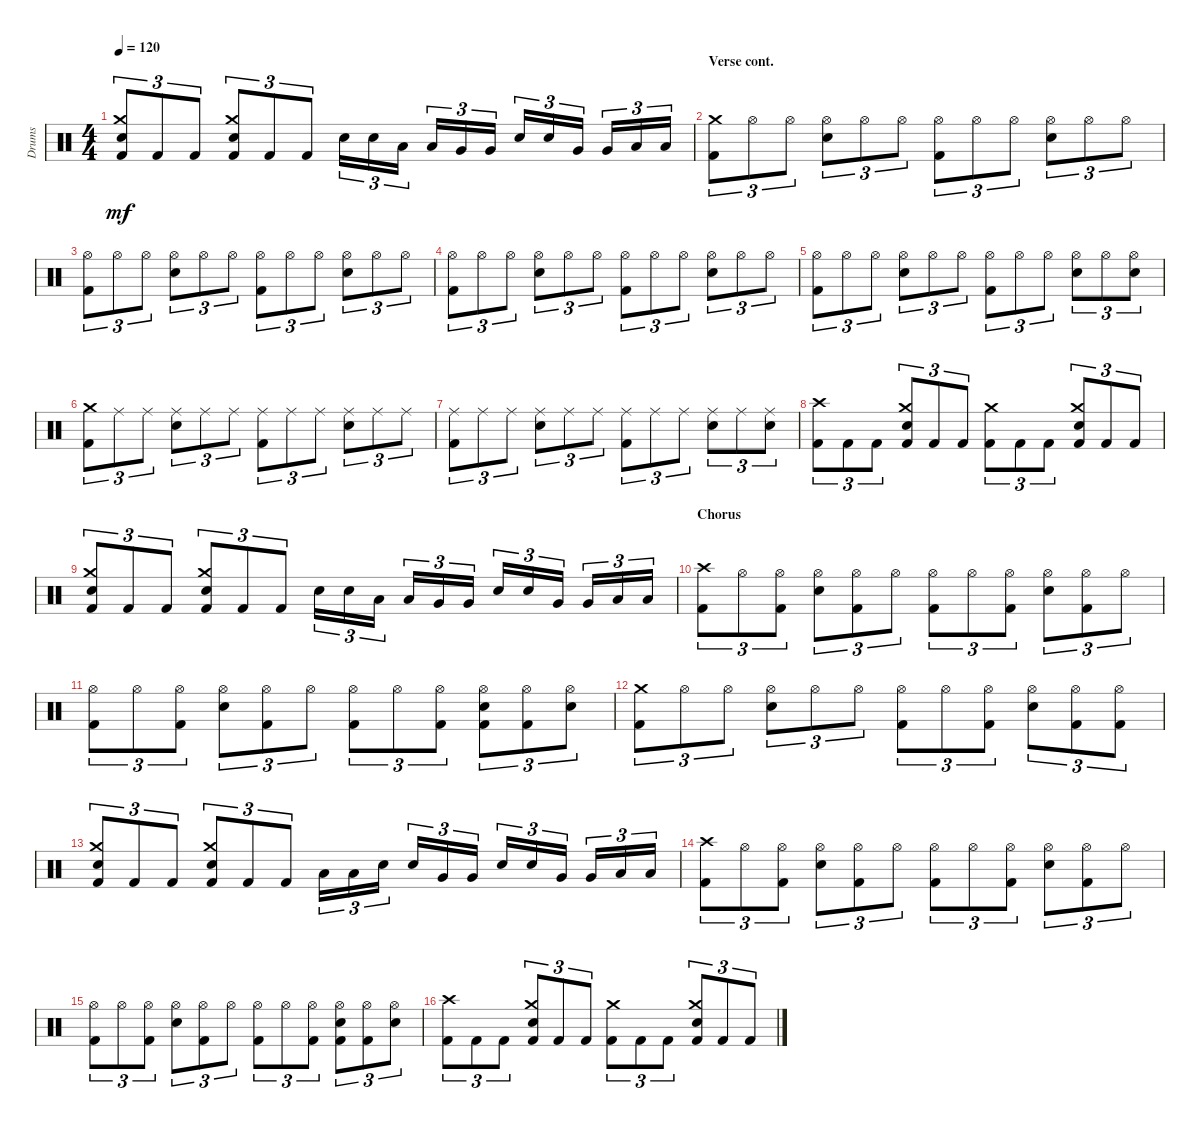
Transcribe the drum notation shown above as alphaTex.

\track ("Drums" "Drums") {instrument percussion}
\staff {score}
\articulation defaults
\ts (4 4)
\tempo 120
\clef neutral
\ks aminor
("Snare (hit) 2" "Crash medium (hit)" "Kick (hit) 2").8{tu (3 2) dy mf} "Kick (hit) 2".8{tu (3 2)} "Kick (hit) 2".8{tu (3 2)} ("Crash medium (hit)" "Kick (hit) 2" "Snare (hit) 2").8{tu (3 2)} "Kick (hit) 2".8{tu (3 2)} "Kick (hit) 2".8{tu (3 2)} "Snare (hit) 2".16{tu (3 2)} "Snare (hit) 2".16{tu (3 2)} "Low Tom (hit)".16{tu (3 2)} "Low Tom (hit)".16{tu (3 2)} "Very Low Tom (hit)".16{tu (3 2)} "Very Low Tom (hit)".16{tu (3 2)} "Snare (hit) 2".16{tu (3 2)} "Snare (hit) 2".16{tu (3 2)} "Very Low Tom (hit)".16{tu (3 2)} "Very Low Tom (hit)".16{tu (3 2)} "Low Floor Tom (hit)".16{tu (3 2)} "Low Floor Tom (hit)".16{tu (3 2)} |
\section ("" "Verse cont.")
("Crash medium (hit)" "Kick (hit) 2").8{tu (3 2)} "Hi-Hat (open)".8{tu (3 2)} "Hi-Hat (open)".8{tu (3 2)} ("Hi-Hat (open)" "Snare (hit) 2").8{tu (3 2)} "Hi-Hat (open)".8{tu (3 2)} "Hi-Hat (open)".8{tu (3 2)} ("Hi-Hat (open)" "Kick (hit) 2").8{tu (3 2)} "Hi-Hat (open)".8{tu (3 2)} "Hi-Hat (open)".8{tu (3 2)} ("Hi-Hat (open)" "Snare (hit) 2").8{tu (3 2)} "Hi-Hat (open)".8{tu (3 2)} "Hi-Hat (open)".8{tu (3 2)} |
("Kick (hit) 2" "Hi-Hat (open)").8{tu (3 2)} "Hi-Hat (open)".8{tu (3 2)} "Hi-Hat (open)".8{tu (3 2)} ("Hi-Hat (open)" "Snare (hit) 2").8{tu (3 2)} "Hi-Hat (open)".8{tu (3 2)} "Hi-Hat (open)".8{tu (3 2)} ("Hi-Hat (open)" "Kick (hit) 2").8{tu (3 2)} "Hi-Hat (open)".8{tu (3 2)} "Hi-Hat (open)".8{tu (3 2)} ("Snare (hit) 2" "Hi-Hat (open)").8{tu (3 2)} "Hi-Hat (open)".8{tu (3 2)} "Hi-Hat (open)".8{tu (3 2)} |
("Hi-Hat (open)" "Kick (hit) 2").8{tu (3 2)} "Hi-Hat (open)".8{tu (3 2)} "Hi-Hat (open)".8{tu (3 2)} ("Snare (hit) 2" "Hi-Hat (open)").8{tu (3 2)} "Hi-Hat (open)".8{tu (3 2)} "Hi-Hat (open)".8{tu (3 2)} ("Kick (hit) 2" "Hi-Hat (open)").8{tu (3 2)} "Hi-Hat (open)".8{tu (3 2)} "Hi-Hat (open)".8{tu (3 2)} ("Hi-Hat (open)" "Snare (hit) 2").8{tu (3 2)} "Hi-Hat (open)".8{tu (3 2)} "Hi-Hat (open)".8{tu (3 2)} |
("Kick (hit) 2" "Hi-Hat (open)").8{tu (3 2)} "Hi-Hat (open)".8{tu (3 2)} "Hi-Hat (open)".8{tu (3 2)} ("Hi-Hat (open)" "Snare (hit) 2").8{tu (3 2)} "Hi-Hat (open)".8{tu (3 2)} "Hi-Hat (open)".8{tu (3 2)} ("Hi-Hat (open)" "Kick (hit) 2").8{tu (3 2)} "Hi-Hat (open)".8{tu (3 2)} "Hi-Hat (open)".8{tu (3 2)} ("Snare (hit) 2" "Hi-Hat (open)").8{tu (3 2)} "Hi-Hat (open)".8{tu (3 2)} ("Snare (hit) 2" "Hi-Hat (open)").8{tu (3 2)} |
("Crash medium (hit)" "Kick (hit) 2").8{tu (3 2)} "Ride (middle)".8{tu (3 2)} "Ride (middle)".8{tu (3 2)} ("Ride (middle)" "Snare (hit) 2").8{tu (3 2)} "Ride (middle)".8{tu (3 2)} "Ride (middle)".8{tu (3 2)} ("Kick (hit) 2" "Ride (middle)").8{tu (3 2)} "Ride (middle)".8{tu (3 2)} "Ride (middle)".8{tu (3 2)} ("Ride (middle)" "Snare (hit) 2").8{tu (3 2)} "Ride (middle)".8{tu (3 2)} "Ride (middle)".8{tu (3 2)} |
("Ride (middle)" "Kick (hit) 2").8{tu (3 2)} "Ride (middle)".8{tu (3 2)} "Ride (middle)".8{tu (3 2)} ("Ride (middle)" "Snare (hit) 2").8{tu (3 2)} "Ride (middle)".8{tu (3 2)} "Ride (middle)".8{tu (3 2)} ("Kick (hit) 2" "Ride (middle)").8{tu (3 2)} "Ride (middle)".8{tu (3 2)} "Ride (middle)".8{tu (3 2)} ("Snare (hit) 2" "Ride (middle)").8{tu (3 2)} "Ride (middle)".8{tu (3 2)} ("Snare (hit) 2" "Ride (middle)").8{tu (3 2)} |
("Kick (hit) 2" "Crash high (hit)").8{tu (3 2)} "Kick (hit) 2".8{tu (3 2)} "Kick (hit) 2".8{tu (3 2)} ("Crash medium (hit)" "Kick (hit) 2" "Snare (hit) 2").8{tu (3 2)} "Kick (hit) 2".8{tu (3 2)} "Kick (hit) 2".8{tu (3 2)} ("Crash medium (hit)" "Kick (hit) 2").8{tu (3 2)} "Kick (hit) 2".8{tu (3 2)} "Kick (hit) 2".8{tu (3 2)} ("Kick (hit) 2" "Snare (hit) 2" "Crash medium (hit)").8{tu (3 2)} "Kick (hit) 2".8{tu (3 2)} "Kick (hit) 2".8{tu (3 2)} |
("Kick (hit) 2" "Snare (hit) 2" "Crash medium (hit)").8{tu (3 2)} "Kick (hit) 2".8{tu (3 2)} "Kick (hit) 2".8{tu (3 2)} ("Snare (hit) 2" "Kick (hit) 2" "Crash medium (hit)").8{tu (3 2)} "Kick (hit) 2".8{tu (3 2)} "Kick (hit) 2".8{tu (3 2)} "Snare (hit) 2".16{tu (3 2)} "Snare (hit) 2".16{tu (3 2)} "Low Tom (hit)".16{tu (3 2)} "Low Tom (hit)".16{tu (3 2)} "Very Low Tom (hit)".16{tu (3 2)} "Very Low Tom (hit)".16{tu (3 2)} "Snare (hit) 2".16{tu (3 2)} "Snare (hit) 2".16{tu (3 2)} "Very Low Tom (hit)".16{tu (3 2)} "Very Low Tom (hit)".16{tu (3 2)} "Low Floor Tom (hit)".16{tu (3 2)} "Low Floor Tom (hit)".16{tu (3 2)} |
\section ("" "Chorus")
("Kick (hit) 2" "Crash high (hit)").8{tu (3 2)} "Hi-Hat (open)".8{tu (3 2)} ("Kick (hit) 2" "Hi-Hat (open)").8{tu (3 2)} ("Snare (hit) 2" "Hi-Hat (open)").8{tu (3 2)} ("Hi-Hat (open)" "Kick (hit) 2").8{tu (3 2)} "Hi-Hat (open)".8{tu (3 2)} ("Kick (hit) 2" "Hi-Hat (open)").8{tu (3 2)} "Hi-Hat (open)".8{tu (3 2)} ("Kick (hit) 2" "Hi-Hat (open)").8{tu (3 2)} ("Hi-Hat (open)" "Snare (hit) 2").8{tu (3 2)} ("Hi-Hat (open)" "Kick (hit) 2").8{tu (3 2)} "Hi-Hat (open)".8{tu (3 2)} |
("Kick (hit) 2" "Hi-Hat (open)").8{tu (3 2)} "Hi-Hat (open)".8{tu (3 2)} ("Hi-Hat (open)" "Kick (hit) 2").8{tu (3 2)} ("Snare (hit) 2" "Hi-Hat (open)").8{tu (3 2)} ("Hi-Hat (open)" "Kick (hit) 2").8{tu (3 2)} "Hi-Hat (open)".8{tu (3 2)} ("Hi-Hat (open)" "Kick (hit) 2").8{tu (3 2)} "Hi-Hat (open)".8{tu (3 2)} ("Kick (hit) 2" "Hi-Hat (open)").8{tu (3 2)} ("Hi-Hat (open)" "Snare (hit) 2" "Kick (hit) 2").8{tu (3 2)} ("Hi-Hat (open)" "Kick (hit) 2").8{tu (3 2)} ("Hi-Hat (open)" "Snare (hit) 2").8{tu (3 2)} |
("Crash medium (hit)" "Kick (hit) 2").8{tu (3 2)} "Hi-Hat (open)".8{tu (3 2)} "Hi-Hat (open)".8{tu (3 2)} ("Snare (hit) 2" "Hi-Hat (open)").8{tu (3 2)} "Hi-Hat (open)".8{tu (3 2)} "Hi-Hat (open)".8{tu (3 2)} ("Kick (hit) 2" "Hi-Hat (open)").8{tu (3 2)} "Hi-Hat (open)".8{tu (3 2)} ("Kick (hit) 2" "Hi-Hat (open)").8{tu (3 2)} ("Hi-Hat (open)" "Snare (hit) 2").8{tu (3 2)} ("Hi-Hat (open)" "Kick (hit) 2").8{tu (3 2)} ("Kick (hit) 2" "Hi-Hat (open)").8{tu (3 2)} |
("Snare (hit) 2" "Crash medium (hit)" "Kick (hit) 2").8{tu (3 2)} "Kick (hit) 2".8{tu (3 2)} "Kick (hit) 2".8{tu (3 2)} ("Snare (hit) 2" "Kick (hit) 2" "Crash medium (hit)").8{tu (3 2)} "Kick (hit) 2".8{tu (3 2)} "Kick (hit) 2".8{tu (3 2)} "Low Tom (hit)".16{tu (3 2)} "Low Tom (hit)".16{tu (3 2)} "Snare (hit) 2".16{tu (3 2)} "Snare (hit) 2".16{tu (3 2)} "Very Low Tom (hit)".16{tu (3 2)} "Very Low Tom (hit)".16{tu (3 2)} "Snare (hit) 2".16{tu (3 2)} "Snare (hit) 2".16{tu (3 2)} "Very Low Tom (hit)".16{tu (3 2)} "Very Low Tom (hit)".16{tu (3 2)} "Low Floor Tom (hit)".16{tu (3 2)} "Low Floor Tom (hit)".16{tu (3 2)} |
("Kick (hit) 2" "Crash high (hit)").8{tu (3 2)} "Hi-Hat (open)".8{tu (3 2)} ("Kick (hit) 2" "Hi-Hat (open)").8{tu (3 2)} ("Snare (hit) 2" "Hi-Hat (open)").8{tu (3 2)} ("Hi-Hat (open)" "Kick (hit) 2").8{tu (3 2)} "Hi-Hat (open)".8{tu (3 2)} ("Hi-Hat (open)" "Kick (hit) 2").8{tu (3 2)} "Hi-Hat (open)".8{tu (3 2)} ("Kick (hit) 2" "Hi-Hat (open)").8{tu (3 2)} ("Snare (hit) 2" "Hi-Hat (open)").8{tu (3 2)} ("Kick (hit) 2" "Hi-Hat (open)").8{tu (3 2)} "Hi-Hat (open)".8{tu (3 2)} |
("Kick (hit) 2" "Hi-Hat (open)").8{tu (3 2)} "Hi-Hat (open)".8{tu (3 2)} ("Hi-Hat (open)" "Kick (hit) 2").8{tu (3 2)} ("Hi-Hat (open)" "Snare (hit) 2").8{tu (3 2)} ("Kick (hit) 2" "Hi-Hat (open)").8{tu (3 2)} "Hi-Hat (open)".8{tu (3 2)} ("Kick (hit) 2" "Hi-Hat (open)").8{tu (3 2)} "Hi-Hat (open)".8{tu (3 2)} ("Kick (hit) 2" "Hi-Hat (open)").8{tu (3 2)} ("Hi-Hat (open)" "Kick (hit) 2" "Snare (hit) 2").8{tu (3 2)} ("Hi-Hat (open)" "Kick (hit) 2").8{tu (3 2)} ("Snare (hit) 2" "Hi-Hat (open)").8{tu (3 2)} |
("Crash high (hit)" "Kick (hit) 2").8{tu (3 2)} "Kick (hit) 2".8{tu (3 2)} "Kick (hit) 2".8{tu (3 2)} ("Snare (hit) 2" "Kick (hit) 2" "Crash medium (hit)").8{tu (3 2)} "Kick (hit) 2".8{tu (3 2)} "Kick (hit) 2".8{tu (3 2)} ("Crash medium (hit)" "Kick (hit) 2").8{tu (3 2)} "Kick (hit) 2".8{tu (3 2)} "Kick (hit) 2".8{tu (3 2)} ("Snare (hit) 2" "Crash medium (hit)" "Kick (hit) 2").8{tu (3 2)} "Kick (hit) 2".8{tu (3 2)} "Kick (hit) 2".8{tu (3 2)}
